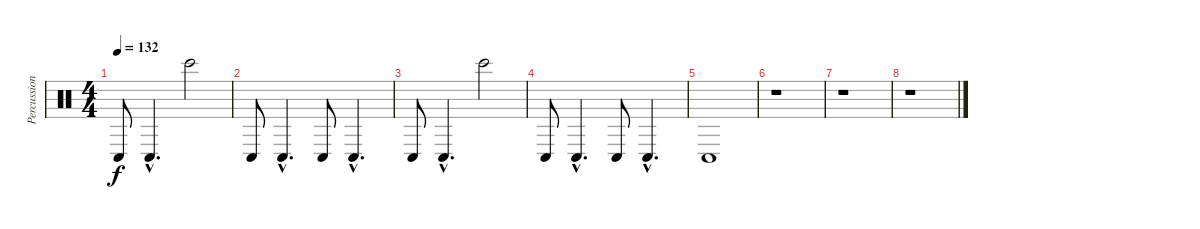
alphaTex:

\track ("Percussion" "Percussion") {instrument percussion}
\staff {score}
\articulation defaults
\ts (4 4)
\tempo 132
\clef neutral
\ks c "Conga low (hit)".8{dy f} "Conga low (hit)"{hac}.4{d} "Bongo High (hit)".2
|
"Conga low (hit)".8 "Conga low (hit)"{hac}.4{d} "Conga low (hit)".8 "Conga low (hit)"{hac}.4{d} |
"Conga low (hit)".8 "Conga low (hit)"{hac}.4{d} "Bongo High (hit)".2 |
"Conga low (hit)".8 "Conga low (hit)"{hac}.4{d} "Conga low (hit)".8 "Conga low (hit)"{hac}.4{d} |
"Conga low (hit)".1 |
r.1 |
r.1 |
r.1
